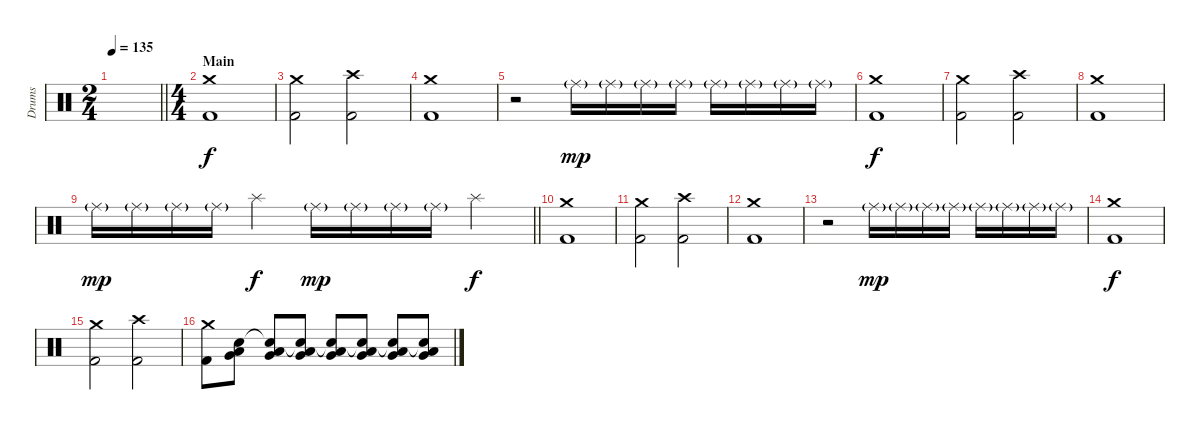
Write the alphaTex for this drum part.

\track ("Drums" "Drums") {instrument percussion}
\staff {score}
\articulation defaults
\ts (2 4)
\tempo 135
\clef neutral
\barLineRight lightlight
\ks c
|
\ts (4 4)
\section ("" "Main")
("Kick (hit) 2" "Crash medium (hit)").1 |
("Kick (hit) 2" "Crash medium (hit)").2 ("Kick (hit) 2" "Crash high (hit)").2 |
("Kick (hit) 2" "Crash medium (hit)").1 |
r.2 "Ride (middle)"{g}.16{dy mp} "Ride (middle)"{g}.16 "Ride (middle)"{g}.16 "Ride (middle)"{g}.16 "Ride (middle)"{g}.16 "Ride (middle)"{g}.16 "Ride (middle)"{g}.16 "Ride (middle)"{g}.16 |
("Kick (hit) 2" "Crash medium (hit)").1{dy f} |
("Kick (hit) 2" "Crash medium (hit)").2 ("Kick (hit) 2" "Crash high (hit)").2 |
("Kick (hit) 2" "Crash medium (hit)").1 |
\barLineRight lightlight "Ride (middle)"{g}.16{dy mp} "Ride (middle)"{g}.16 "Ride (middle)"{g}.16 "Ride (middle)"{g}.16 "Splash (hit)".4{dy f} "Ride (middle)"{g}.16{dy mp} "Ride (middle)"{g}.16 "Ride (middle)"{g}.16 "Ride (middle)"{g}.16 "Splash (hit)".4{dy f}
|
\section ("" "")
("Kick (hit) 2" "Crash medium (hit)").1 |
("Kick (hit) 2" "Crash medium (hit)").2 ("Kick (hit) 2" "Crash high (hit)").2 |
("Kick (hit) 2" "Crash medium (hit)").1 |
r.2 "Ride (middle)"{g}.16{dy mp} "Ride (middle)"{g}.16 "Ride (middle)"{g}.16 "Ride (middle)"{g}.16 "Ride (middle)"{g}.16 "Ride (middle)"{g}.16 "Ride (middle)"{g}.16 "Ride (middle)"{g}.16 |
("Kick (hit) 2" "Crash medium (hit)").1{dy f} |
("Kick (hit) 2" "Crash medium (hit)").2 ("Kick (hit) 2" "Crash high (hit)").2 |
("Kick (hit) 2" "Crash medium (hit)").8 ("Very Low Tom (hit)" "Low Floor Tom (hit)" "Snare (hit)").8{volume 5} ("Very Low Tom (hit)" "Low Floor Tom (hit)" "Snare (hit)"{t}).8{volume 13} ("Very Low Tom (hit)" "Low Floor Tom (hit)" "Snare (hit)"{t}).8 ("Very Low Tom (hit)" "Low Floor Tom (hit)" "Snare (hit)"{t}).8 ("Very Low Tom (hit)" "Low Floor Tom (hit)" "Snare (hit)"{t}).8 ("Very Low Tom (hit)" "Low Floor Tom (hit)" "Snare (hit)"{t}).8 ("Very Low Tom (hit)" "Low Floor Tom (hit)" "Snare (hit)"{t}).8
